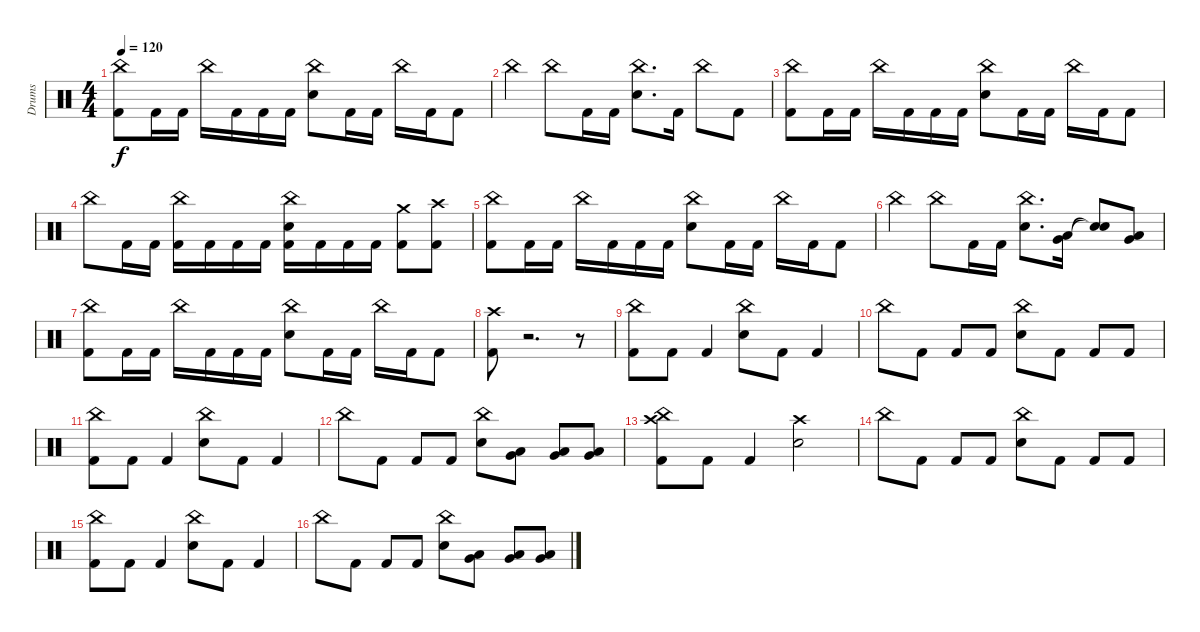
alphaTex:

\track ("Drums" "Drums") {instrument percussion}
\staff {score}
\articulation defaults
\ts (4 4)
\tempo 120
\clef neutral
\ks c
("China (hit)" "Kick (hit) 2").8{dy f} "Kick (hit) 2".16 "Kick (hit) 2".16 "China (hit)".16 "Kick (hit) 2".16 "Kick (hit) 2".16 "Kick (hit) 2".16 ("China (hit)" "Electric Snare (hit)").8 "Kick (hit) 2".16 "Kick (hit) 2".16 "China (hit)".16 "Kick (hit) 2".16 "Kick (hit) 2".8 |
"China (hit)".4 "China (hit)".8 "Kick (hit) 2".16 "Kick (hit) 2".16 ("China (hit)" "Electric Snare (hit)").8{d} "Kick (hit) 2".16 "China (hit)".8 "Kick (hit) 2".8 |
("China (hit)" "Kick (hit) 2").8 "Kick (hit) 2".16 "Kick (hit) 2".16 "China (hit)".16 "Kick (hit) 2".16 "Kick (hit) 2".16 "Kick (hit) 2".16 ("China (hit)" "Electric Snare (hit)").8 "Kick (hit) 2".16 "Kick (hit) 2".16 "China (hit)".16 "Kick (hit) 2".16 "Kick (hit) 2".8 |
"China (hit)".8 "Kick (hit) 2".16 "Kick (hit) 2".16 ("China (hit)" "Kick (hit) 2").16 "Kick (hit) 2".16 "Kick (hit) 2".16 "Kick (hit) 2".16 ("China (hit)" "Electric Snare (hit)" "Kick (hit) 2").16 "Kick (hit) 2".16 "Kick (hit) 2".16 "Kick (hit) 2".16 ("Crash medium (hit)" "Kick (hit) 2").8 ("Crash high (hit)" "Kick (hit) 2").8 |
("China (hit)" "Kick (hit) 2").8 "Kick (hit) 2".16 "Kick (hit) 2".16 "China (hit)".16 "Kick (hit) 2".16 "Kick (hit) 2".16 "Kick (hit) 2".16 ("China (hit)" "Electric Snare (hit)").8 "Kick (hit) 2".16 "Kick (hit) 2".16 "China (hit)".16 "Kick (hit) 2".16 "Kick (hit) 2".8 |
"China (hit)".4 "China (hit)".8 "Kick (hit) 2".16 "Kick (hit) 2".16 ("China (hit)" "Electric Snare (hit)").8{d} ("Very Low Tom (hit)" "Low Tom (hit)").16 ("Snare (hit)"{t} "Snare (hit)"{t}).8 ("Very Low Tom (hit)" "Low Tom (hit)").8 |
("China (hit)" "Kick (hit) 2").8 "Kick (hit) 2".16 "Kick (hit) 2".16 "China (hit)".16 "Kick (hit) 2".16 "Kick (hit) 2".16 "Kick (hit) 2".16 ("China (hit)" "Electric Snare (hit)").8 "Kick (hit) 2".16 "Kick (hit) 2".16 "China (hit)".16 "Kick (hit) 2".16 "Kick (hit) 2".8 |
("Crash high (hit)" "Kick (hit) 2").8 r.2{d volume 0} r.8 |
("China (hit)" "Kick (hit) 2").8{volume 16} "Kick (hit) 2".8 "Kick (hit) 2".4 ("China (hit)" "Electric Snare (hit)").8 "Kick (hit) 2".8 "Kick (hit) 2".4 |
"China (hit)".8 "Kick (hit) 2".8 "Kick (hit) 2".8 "Kick (hit) 2".8 ("China (hit)" "Electric Snare (hit)").8 "Kick (hit) 2".8 "Kick (hit) 2".8 "Kick (hit) 2".8 |
("China (hit)" "Kick (hit) 2").8 "Kick (hit) 2".8 "Kick (hit) 2".4 ("China (hit)" "Electric Snare (hit)").8 "Kick (hit) 2".8 "Kick (hit) 2".4 |
"China (hit)".8 "Kick (hit) 2".8 "Kick (hit) 2".8 "Kick (hit) 2".8 ("China (hit)" "Electric Snare (hit)").8 ("Very Low Tom (hit)" "Low Floor Tom (hit)").8 ("Very Low Tom (hit)" "Low Floor Tom (hit)").8 ("Very Low Tom (hit)" "Low Floor Tom (hit)").8 |
("China (hit)" "Crash high (hit)" "Kick (hit) 2").8 "Kick (hit) 2".8 "Kick (hit) 2".4 ("Crash high (hit)" "Electric Snare (hit)").2 |
"China (hit)".8 "Kick (hit) 2".8 "Kick (hit) 2".8 "Kick (hit) 2".8 ("China (hit)" "Electric Snare (hit)").8 "Kick (hit) 2".8 "Kick (hit) 2".8 "Kick (hit) 2".8 |
("China (hit)" "Kick (hit) 2").8 "Kick (hit) 2".8 "Kick (hit) 2".4 ("China (hit)" "Electric Snare (hit)").8 "Kick (hit) 2".8 "Kick (hit) 2".4 |
"China (hit)".8 "Kick (hit) 2".8 "Kick (hit) 2".8 "Kick (hit) 2".8 ("China (hit)" "Electric Snare (hit)").8 ("Very Low Tom (hit)" "Low Floor Tom (hit)").8 ("Very Low Tom (hit)" "Low Floor Tom (hit)").8 ("Very Low Tom (hit)" "Low Floor Tom (hit)").8
